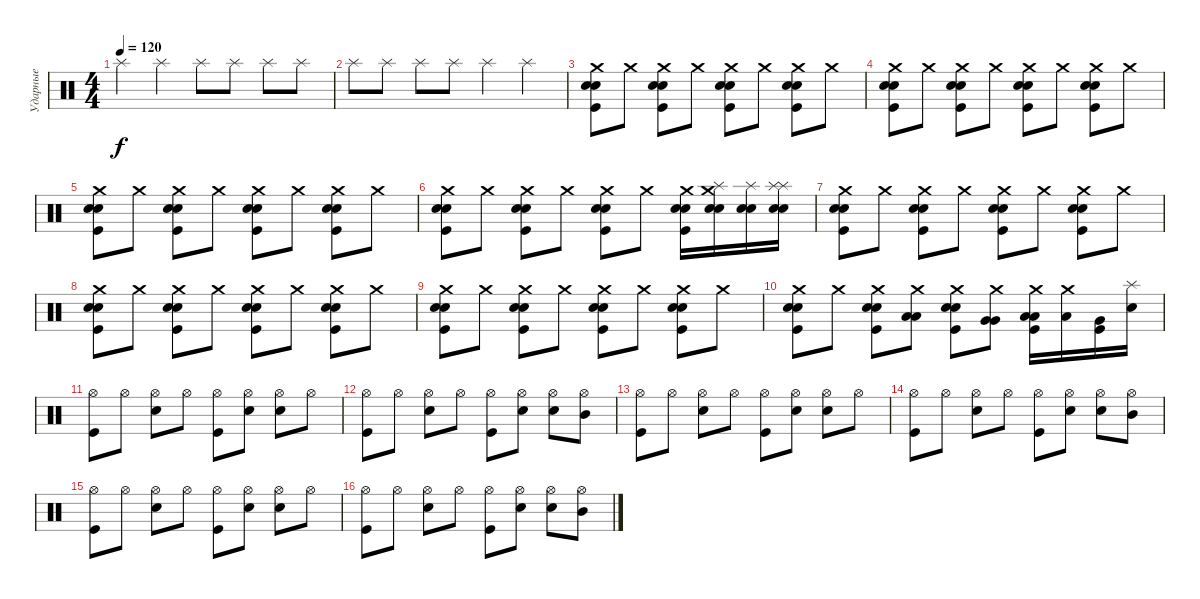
\track ("Ударные" "Ударные") {instrument percussion}
\staff {score}
\articulation defaults
\ts (4 4)
\tempo 120
\clef neutral
\ks c "Splash (hit)".4{dy f} "Splash (hit)".4 "Splash (hit)".8 "Splash (hit)".8 "Splash (hit)".8 "Splash (hit)".8
|
"Splash (hit)".8 "Splash (hit)".8 "Splash (hit)".8 "Splash (hit)".8 "Splash (hit)".4 "Splash (hit)".4 |
("Crash medium (hit)" "Electric Snare (hit)" "Electric Snare (hit)" "Kick (hit)").8 "Crash medium (hit)".8 ("Crash medium (hit)" "Electric Snare (hit)" "Electric Snare (hit)" "Kick (hit)").8 "Crash medium (hit)".8 ("Crash medium (hit)" "Electric Snare (hit)" "Electric Snare (hit)" "Kick (hit)").8 "Crash medium (hit)".8 ("Crash medium (hit)" "Electric Snare (hit)" "Electric Snare (hit)" "Kick (hit)").8 "Crash medium (hit)".8 |
("Crash medium (hit)" "Electric Snare (hit)" "Electric Snare (hit)" "Kick (hit)").8 "Crash medium (hit)".8 ("Crash medium (hit)" "Electric Snare (hit)" "Electric Snare (hit)" "Kick (hit)").8 "Crash medium (hit)".8 ("Crash medium (hit)" "Electric Snare (hit)" "Electric Snare (hit)" "Kick (hit)").8 "Crash medium (hit)".8 ("Crash medium (hit)" "Electric Snare (hit)" "Electric Snare (hit)" "Kick (hit)").8 "Crash medium (hit)".8 |
("Crash medium (hit)" "Electric Snare (hit)" "Electric Snare (hit)" "Kick (hit)").8 "Crash medium (hit)".8 ("Crash medium (hit)" "Electric Snare (hit)" "Electric Snare (hit)" "Kick (hit)").8 "Crash medium (hit)".8 ("Crash medium (hit)" "Electric Snare (hit)" "Electric Snare (hit)" "Kick (hit)").8 "Crash medium (hit)".8 ("Crash medium (hit)" "Electric Snare (hit)" "Electric Snare (hit)" "Kick (hit)").8 "Crash medium (hit)".8 |
("Crash medium (hit)" "Electric Snare (hit)" "Electric Snare (hit)" "Kick (hit)").8 "Crash medium (hit)".8 ("Crash medium (hit)" "Electric Snare (hit)" "Electric Snare (hit)" "Kick (hit)").8 "Crash medium (hit)".8 ("Crash medium (hit)" "Electric Snare (hit)" "Electric Snare (hit)" "Kick (hit)").8 "Crash medium (hit)".8 ("Crash medium (hit)" "Electric Snare (hit)" "Electric Snare (hit)" "Kick (hit)").16 ("Crash medium (hit)" "Splash (hit)" "Snare (hit) 2" "Snare (hit) 2").16 ("Splash (hit)" "Snare (hit) 2" "Snare (hit) 2").16 ("Splash (hit)" "Splash (hit)" "Electric Snare (hit)" "Electric Snare (hit)").16 |
("Crash medium (hit)" "Electric Snare (hit)" "Electric Snare (hit)" "Kick (hit)").8 "Crash medium (hit)".8 ("Crash medium (hit)" "Electric Snare (hit)" "Electric Snare (hit)" "Kick (hit)").8 "Crash medium (hit)".8 ("Crash medium (hit)" "Electric Snare (hit)" "Electric Snare (hit)" "Kick (hit)").8 "Crash medium (hit)".8 ("Crash medium (hit)" "Electric Snare (hit)" "Electric Snare (hit)" "Kick (hit)").8 "Crash medium (hit)".8 |
("Crash medium (hit)" "Electric Snare (hit)" "Electric Snare (hit)" "Kick (hit)").8 "Crash medium (hit)".8 ("Crash medium (hit)" "Electric Snare (hit)" "Electric Snare (hit)" "Kick (hit)").8 "Crash medium (hit)".8 ("Crash medium (hit)" "Electric Snare (hit)" "Electric Snare (hit)" "Kick (hit)").8 "Crash medium (hit)".8 ("Crash medium (hit)" "Electric Snare (hit)" "Electric Snare (hit)" "Kick (hit)").8 "Crash medium (hit)".8 |
("Crash medium (hit)" "Electric Snare (hit)" "Electric Snare (hit)" "Kick (hit)").8 "Crash medium (hit)".8 ("Crash medium (hit)" "Electric Snare (hit)" "Electric Snare (hit)" "Kick (hit)").8 "Crash medium (hit)".8 ("Crash medium (hit)" "Electric Snare (hit)" "Electric Snare (hit)" "Kick (hit)").8 "Crash medium (hit)".8 ("Crash medium (hit)" "Electric Snare (hit)" "Electric Snare (hit)" "Kick (hit)").8 "Crash medium (hit)".8 |
("Crash medium (hit)" "Electric Snare (hit)" "Electric Snare (hit)" "Kick (hit)").8 "Crash medium (hit)".8 ("Crash medium (hit)" "Electric Snare (hit)" "Electric Snare (hit)" "Kick (hit)").8 ("Crash medium (hit)" "Low Floor Tom (hit)" "Low Floor Tom (hit)").8 ("Crash medium (hit)" "Electric Snare (hit)" "Electric Snare (hit)" "Kick (hit)").8 ("Crash medium (hit)" "Very Low Tom (hit)" "Very Low Tom (hit)").8 ("Crash medium (hit)" "Low Floor Tom (hit)" "Low Floor Tom (hit)" "Kick (hit)").16 ("Crash medium (hit)" "Low Floor Tom (hit)").16 ("Very Low Tom (hit)" "Kick (hit)").16 ("Splash (hit)" "Electric Snare (hit)").16 |
("Hi-Hat (open)" "Kick (hit)").8 "Hi-Hat (open)".8 ("Hi-Hat (open)" "Snare (hit) 2").8 "Hi-Hat (open)".8 ("Hi-Hat (open)" "Kick (hit)").8 ("Hi-Hat (open)" "Electric Snare (hit)").8 ("Hi-Hat (open)" "Snare (hit) 2").8 "Hi-Hat (open)".8 |
("Hi-Hat (open)" "Kick (hit)").8 "Hi-Hat (open)".8 ("Hi-Hat (open)" "Snare (hit) 2").8 "Hi-Hat (open)".8 ("Hi-Hat (open)" "Kick (hit)").8 ("Hi-Hat (open)" "Electric Snare (hit)").8 ("Hi-Hat (open)" "Snare (hit) 2").8 ("Hi-Hat (open)" "Mid Tom (hit)").8 |
("Hi-Hat (open)" "Kick (hit)").8 "Hi-Hat (open)".8 ("Hi-Hat (open)" "Snare (hit) 2").8 "Hi-Hat (open)".8 ("Hi-Hat (open)" "Kick (hit)").8 ("Hi-Hat (open)" "Electric Snare (hit)").8 ("Hi-Hat (open)" "Snare (hit) 2").8 "Hi-Hat (open)".8 |
("Hi-Hat (open)" "Kick (hit)").8 "Hi-Hat (open)".8 ("Hi-Hat (open)" "Snare (hit) 2").8 "Hi-Hat (open)".8 ("Hi-Hat (open)" "Kick (hit)").8 ("Hi-Hat (open)" "Electric Snare (hit)").8 ("Hi-Hat (open)" "Snare (hit) 2").8 ("Hi-Hat (open)" "Mid Tom (hit)").8 |
("Hi-Hat (open)" "Kick (hit)").8 "Hi-Hat (open)".8 ("Hi-Hat (open)" "Snare (hit) 2").8 "Hi-Hat (open)".8 ("Hi-Hat (open)" "Kick (hit)").8 ("Hi-Hat (open)" "Electric Snare (hit)").8 ("Hi-Hat (open)" "Snare (hit) 2").8 "Hi-Hat (open)".8 |
("Hi-Hat (open)" "Kick (hit)").8 "Hi-Hat (open)".8 ("Hi-Hat (open)" "Snare (hit) 2").8 "Hi-Hat (open)".8 ("Hi-Hat (open)" "Kick (hit)").8 ("Hi-Hat (open)" "Electric Snare (hit)").8 ("Hi-Hat (open)" "Snare (hit) 2").8 ("Hi-Hat (open)" "Mid Tom (hit)").8
